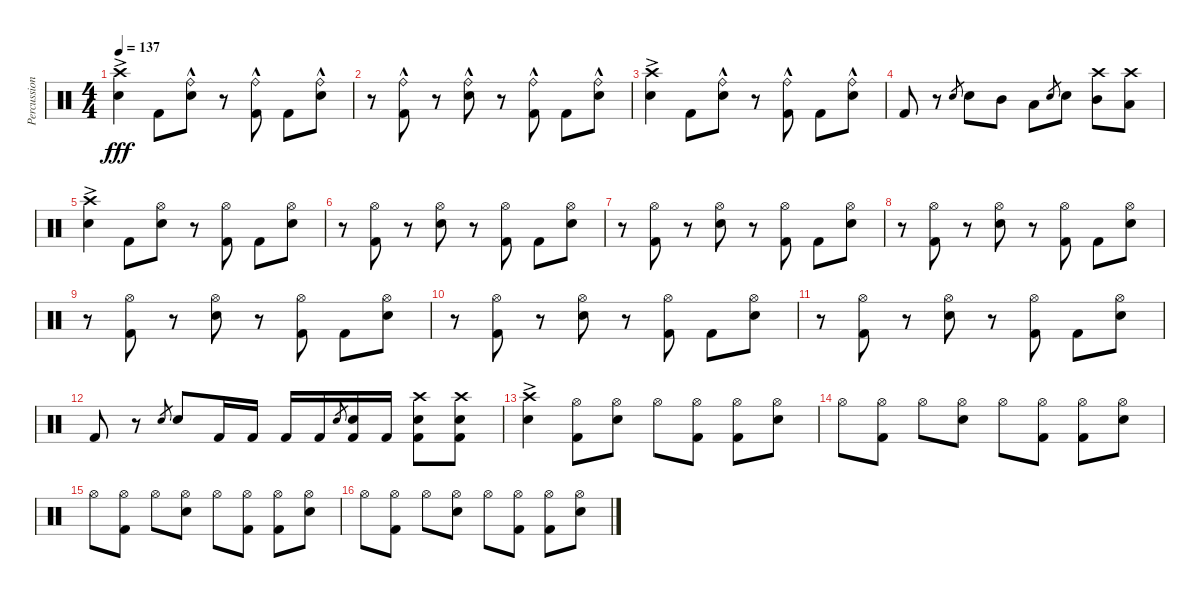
\track ("Percussion" "Percussion") {solo instrument percussion}
\staff {score}
\articulation defaults
\ts (4 4)
\tempo 137
\clef neutral
\ks c
("Crash high (hit)"{ac} "Electric Snare (hit)"{ac}).4{dy fff} "Kick (hit) 2".8 ("Electric Snare (hit)" "Ride (bell)"{hac}).8 r.8 ("Kick (hit) 2" "Ride (bell)"{hac}).8 "Kick (hit) 2".8 ("Electric Snare (hit)" "Ride (bell)"{hac}).8 |
r.8 ("Kick (hit) 2" "Ride (bell)"{hac}).8 r.8 ("Electric Snare (hit)" "Ride (bell)"{hac}).8 r.8 ("Kick (hit) 2" "Ride (bell)"{hac}).8 "Kick (hit) 2".8 ("Electric Snare (hit)" "Ride (bell)"{hac}).8 |
("Crash high (hit)"{ac} "Electric Snare (hit)"{ac}).4 "Kick (hit) 2".8 ("Electric Snare (hit)" "Ride (bell)"{hac}).8 r.8 ("Kick (hit) 2" "Ride (bell)"{hac}).8 "Kick (hit) 2".8 ("Electric Snare (hit)" "Ride (bell)"{hac}).8 |
"Kick (hit) 2".8 r.8 "Electric Snare (hit)".8{gr} "Electric Snare (hit)".8 "Mid Tom (hit)".8 "Low Tom (hit)".8 "Electric Snare (hit)".8{gr} "Electric Snare (hit)".8 ("Crash high (hit)" "Mid Tom (hit)").8 ("Crash high (hit)" "Low Tom (hit)").8 |
("Crash high (hit)"{ac} "Electric Snare (hit)"{ac}).4 "Kick (hit) 2".8 ("Electric Snare (hit)" "Hi-Hat (open)").8 r.8 ("Kick (hit) 2" "Hi-Hat (open)").8 "Kick (hit) 2".8 ("Electric Snare (hit)" "Hi-Hat (open)").8 |
r.8 ("Kick (hit) 2" "Hi-Hat (open)").8 r.8 ("Electric Snare (hit)" "Hi-Hat (open)").8 r.8 ("Kick (hit) 2" "Hi-Hat (open)").8 "Kick (hit) 2".8 ("Electric Snare (hit)" "Hi-Hat (open)").8 |
r.8 ("Kick (hit) 2" "Hi-Hat (open)").8 r.8 ("Electric Snare (hit)" "Hi-Hat (open)").8 r.8 ("Kick (hit) 2" "Hi-Hat (open)").8 "Kick (hit) 2".8 ("Electric Snare (hit)" "Hi-Hat (open)").8 |
r.8 ("Kick (hit) 2" "Hi-Hat (open)").8 r.8 ("Electric Snare (hit)" "Hi-Hat (open)").8 r.8 ("Kick (hit) 2" "Hi-Hat (open)").8 "Kick (hit) 2".8 ("Electric Snare (hit)" "Hi-Hat (open)").8 |
r.8 ("Kick (hit) 2" "Hi-Hat (open)").8 r.8 ("Electric Snare (hit)" "Hi-Hat (open)").8 r.8 ("Kick (hit) 2" "Hi-Hat (open)").8 "Kick (hit) 2".8 ("Electric Snare (hit)" "Hi-Hat (open)").8 |
r.8 ("Kick (hit) 2" "Hi-Hat (open)").8 r.8 ("Electric Snare (hit)" "Hi-Hat (open)").8 r.8 ("Kick (hit) 2" "Hi-Hat (open)").8 "Kick (hit) 2".8 ("Electric Snare (hit)" "Hi-Hat (open)").8 |
r.8 ("Kick (hit) 2" "Hi-Hat (open)").8 r.8 ("Electric Snare (hit)" "Hi-Hat (open)").8 r.8 ("Kick (hit) 2" "Hi-Hat (open)").8 "Kick (hit) 2".8 ("Electric Snare (hit)" "Hi-Hat (open)").8 |
"Kick (hit) 2".8 r.8 "Electric Snare (hit)".8{gr} "Electric Snare (hit)".8 "Kick (hit) 2".16 "Kick (hit) 2".16 "Kick (hit) 2".16 "Kick (hit) 2".16 "Electric Snare (hit)".8{gr} ("Kick (hit) 2" "Electric Snare (hit)").16 "Kick (hit) 2".16 ("Crash high (hit)" "Electric Snare (hit)" "Kick (hit) 2").8 ("Crash high (hit)" "Electric Snare (hit)" "Kick (hit) 2").8 |
("Crash high (hit)"{ac} "Electric Snare (hit)"{ac}).4 ("Kick (hit) 2" "Hi-Hat (open)").8 ("Electric Snare (hit)" "Hi-Hat (open)").8 "Hi-Hat (open)".8 ("Kick (hit) 2" "Hi-Hat (open)").8 ("Kick (hit) 2" "Hi-Hat (open)").8 ("Electric Snare (hit)" "Hi-Hat (open)").8 |
"Hi-Hat (open)".8 ("Kick (hit) 2" "Hi-Hat (open)").8 "Hi-Hat (open)".8 ("Electric Snare (hit)" "Hi-Hat (open)").8 "Hi-Hat (open)".8 ("Kick (hit) 2" "Hi-Hat (open)").8 ("Kick (hit) 2" "Hi-Hat (open)").8 ("Electric Snare (hit)" "Hi-Hat (open)").8 |
"Hi-Hat (open)".8 ("Kick (hit) 2" "Hi-Hat (open)").8 "Hi-Hat (open)".8 ("Electric Snare (hit)" "Hi-Hat (open)").8 "Hi-Hat (open)".8 ("Kick (hit) 2" "Hi-Hat (open)").8 ("Kick (hit) 2" "Hi-Hat (open)").8 ("Electric Snare (hit)" "Hi-Hat (open)").8 |
"Hi-Hat (open)".8 ("Kick (hit) 2" "Hi-Hat (open)").8 "Hi-Hat (open)".8 ("Electric Snare (hit)" "Hi-Hat (open)").8 "Hi-Hat (open)".8 ("Kick (hit) 2" "Hi-Hat (open)").8 ("Kick (hit) 2" "Hi-Hat (open)").8 ("Electric Snare (hit)" "Hi-Hat (open)").8
